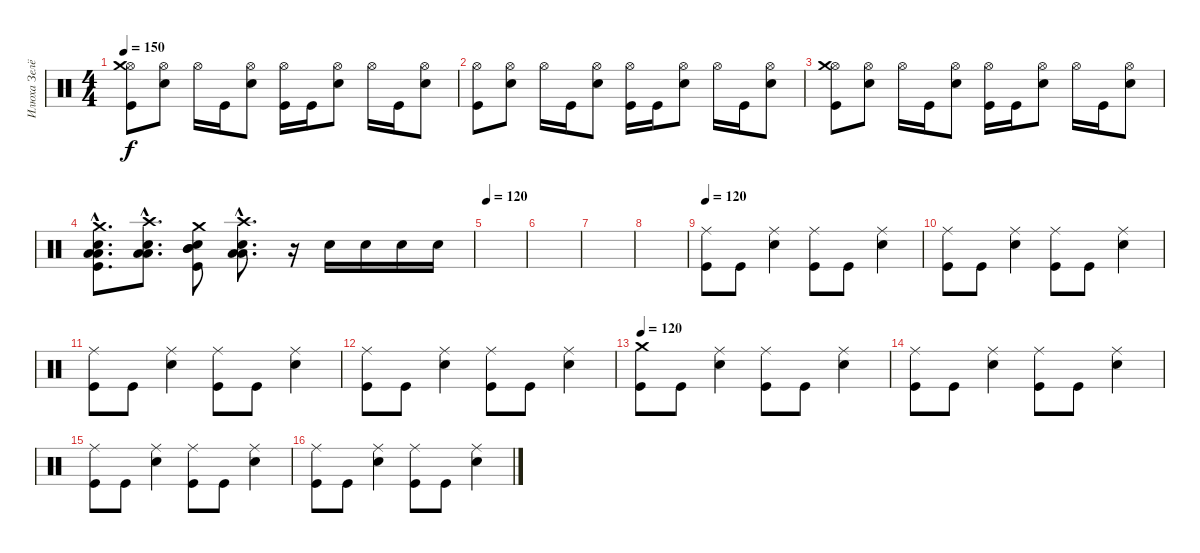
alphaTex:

\track ("Илюха Зелёный (БАРАБАНЫ)" "Илюха Зелё") {instrument percussion}
\staff {score}
\articulation defaults
\ts (4 4)
\tempo 150
\clef neutral
\ks c
("Hi-Hat (open)" "Crash medium (hit)" "Kick (hit)").8{dy f} ("Hi-Hat (open)" "Electric Snare (hit)").8 "Hi-Hat (open)".16 "Kick (hit)".16 ("Hi-Hat (open)" "Electric Snare (hit)").8 ("Hi-Hat (open)" "Kick (hit)").16 "Kick (hit)".16 ("Hi-Hat (open)" "Electric Snare (hit)").8 "Hi-Hat (open)".16 "Kick (hit)".16 ("Hi-Hat (open)" "Electric Snare (hit)").8 |
("Hi-Hat (open)" "Kick (hit)").8 ("Hi-Hat (open)" "Electric Snare (hit)").8 "Hi-Hat (open)".16 "Kick (hit)".16 ("Hi-Hat (open)" "Electric Snare (hit)").8 ("Hi-Hat (open)" "Kick (hit)").16 "Kick (hit)".16 ("Hi-Hat (open)" "Electric Snare (hit)").8 "Hi-Hat (open)".16 "Kick (hit)".16 ("Hi-Hat (open)" "Electric Snare (hit)").8 |
("Hi-Hat (open)" "Crash medium (hit)" "Kick (hit)").8 ("Hi-Hat (open)" "Electric Snare (hit)").8 "Hi-Hat (open)".16 "Kick (hit)".16 ("Hi-Hat (open)" "Electric Snare (hit)").8 ("Hi-Hat (open)" "Kick (hit)").16 "Kick (hit)".16 ("Hi-Hat (open)" "Electric Snare (hit)").8 "Hi-Hat (open)".16 "Kick (hit)".16 ("Hi-Hat (open)" "Electric Snare (hit)").8 |
("Crash medium (hit)"{hac} "Low Floor Tom (hit)"{hac} "Low Floor Tom (hit)"{hac} "Electric Snare (hit)"{hac} "Kick (hit)"{hac}).8{d} ("Crash high (hit)"{hac} "Low Floor Tom (hit)"{hac} "Low Floor Tom (hit)"{hac} "Electric Snare (hit)"{hac}).8{d} ("Crash medium (hit)" "Mid Tom (hit)" "Mid Tom (hit)" "Electric Snare (hit)" "Kick (hit)").8 ("Crash high (hit)"{hac} "Low Floor Tom (hit)"{hac} "Low Floor Tom (hit)"{hac} "Electric Snare (hit)"{hac}).8{d} r.16 "Electric Snare (hit)".16 "Electric Snare (hit)".16 "Electric Snare (hit)".16 "Electric Snare (hit)".16 |
\tempo 120
|
|
|
|
\tempo 120
("Ride (middle)" "Kick (hit)").8 "Kick (hit)".8 ("Ride (middle)" "Electric Snare (hit)").4 ("Ride (middle)" "Kick (hit)").8 "Kick (hit)".8 ("Ride (middle)" "Electric Snare (hit)").4 |
("Ride (middle)" "Kick (hit)").8 "Kick (hit)".8 ("Ride (middle)" "Electric Snare (hit)").4 ("Ride (middle)" "Kick (hit)").8 "Kick (hit)".8 ("Ride (middle)" "Electric Snare (hit)").4 |
("Ride (middle)" "Kick (hit)").8 "Kick (hit)".8 ("Ride (middle)" "Electric Snare (hit)").4 ("Ride (middle)" "Kick (hit)").8 "Kick (hit)".8 ("Ride (middle)" "Electric Snare (hit)").4 |
("Ride (middle)" "Kick (hit)").8 "Kick (hit)".8 ("Ride (middle)" "Electric Snare (hit)").4 ("Ride (middle)" "Kick (hit)").8 "Kick (hit)".8 ("Ride (middle)" "Electric Snare (hit)").4 |
\tempo 120
("Crash medium (hit)" "Kick (hit)").8 "Kick (hit)".8 ("Ride (middle)" "Electric Snare (hit)").4 ("Ride (middle)" "Kick (hit)").8 "Kick (hit)".8 ("Ride (middle)" "Electric Snare (hit)").4 |
("Ride (middle)" "Kick (hit)").8 "Kick (hit)".8 ("Ride (middle)" "Electric Snare (hit)").4 ("Ride (middle)" "Kick (hit)").8 "Kick (hit)".8 ("Ride (middle)" "Electric Snare (hit)").4 |
("Ride (middle)" "Kick (hit)").8 "Kick (hit)".8 ("Ride (middle)" "Electric Snare (hit)").4 ("Ride (middle)" "Kick (hit)").8 "Kick (hit)".8 ("Ride (middle)" "Electric Snare (hit)").4 |
("Ride (middle)" "Kick (hit)").8 "Kick (hit)".8 ("Ride (middle)" "Electric Snare (hit)").4 ("Ride (middle)" "Kick (hit)").8 "Kick (hit)".8 ("Ride (middle)" "Electric Snare (hit)").4
